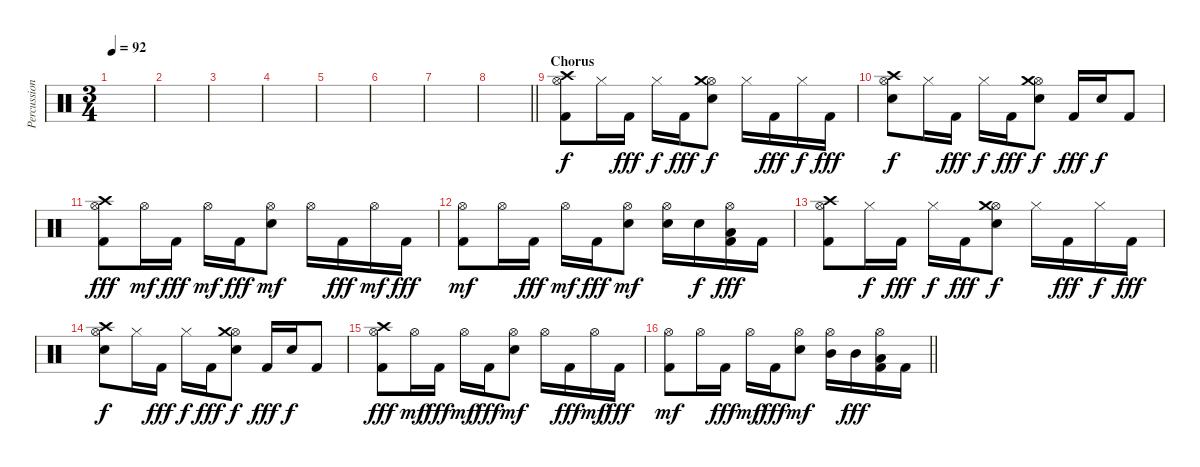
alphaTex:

\track ("Percussion" "Percussion") {instrument percussion}
\staff {score}
\articulation defaults
\ts (3 4)
\tempo 92
\clef neutral
\ks c
|
|
|
|
|
|
|
\barLineRight lightlight
|
\section ("" "Chorus")
("Kick (hit) 2" "Hi-Hat (open)" "Crash high (hit)").8 "Hi-Hat (closed)".16{dy f} "Kick (hit) 2".16{dy fff} "Hi-Hat (closed)".16{dy f} "Kick (hit) 2".16{dy fff} ("Electric Snare (hit)" "Hi-Hat (open)" "Crash medium (hit)").8{dy f} "Hi-Hat (closed)".16 "Kick (hit) 2".16{dy fff} "Hi-Hat (closed)".16{dy f} "Kick (hit) 2".16{dy fff} |
("Electric Snare (hit)" "Hi-Hat (open)" "Crash high (hit)").8{dy f} "Hi-Hat (closed)".16 "Kick (hit) 2".16{dy fff} "Hi-Hat (closed)".16{dy f} "Kick (hit) 2".16{dy fff} ("Electric Snare (hit)" "Hi-Hat (open)" "Crash medium (hit)").8{dy f} "Kick (hit) 2".16{dy fff} "Electric Snare (hit)".16{dy f} "Kick (hit) 2".8 |
("Kick (hit) 2" "Hi-Hat (open)" "Crash high (hit)").8{dy fff} "Hi-Hat (open)".16{dy mf} "Kick (hit) 2".16{dy fff} "Hi-Hat (open)".16{dy mf} "Kick (hit) 2".16{dy fff} ("Electric Snare (hit)" "Hi-Hat (open)").8{dy mf} "Hi-Hat (open)".16 "Kick (hit) 2".16{dy fff} "Hi-Hat (open)".16{dy mf} "Kick (hit) 2".16{dy fff} |
("Kick (hit) 2" "Hi-Hat (open)").8{dy mf} "Hi-Hat (open)".16 "Kick (hit) 2".16{dy fff} "Hi-Hat (open)".16{dy mf} "Kick (hit) 2".16{dy fff} ("Electric Snare (hit)" "Hi-Hat (open)").8{dy mf} ("Electric Snare (hit)" "Hi-Hat (open)").16 "Electric Snare (hit)".16{dy f} ("Kick (hit) 2" "Hi-Hat (open)" "Low Tom (hit)").16{dy fff} "Kick (hit) 2".16 |
("Kick (hit) 2" "Hi-Hat (open)" "Crash high (hit)").8 "Hi-Hat (closed)".16{dy f} "Kick (hit) 2".16{dy fff} "Hi-Hat (closed)".16{dy f} "Kick (hit) 2".16{dy fff} ("Electric Snare (hit)" "Hi-Hat (open)" "Crash medium (hit)").8{dy f} "Hi-Hat (closed)".16 "Kick (hit) 2".16{dy fff} "Hi-Hat (closed)".16{dy f} "Kick (hit) 2".16{dy fff} |
("Electric Snare (hit)" "Hi-Hat (open)" "Crash high (hit)").8{dy f} "Hi-Hat (closed)".16 "Kick (hit) 2".16{dy fff} "Hi-Hat (closed)".16{dy f} "Kick (hit) 2".16{dy fff} ("Electric Snare (hit)" "Hi-Hat (open)" "Crash medium (hit)").8{dy f} "Kick (hit) 2".16{dy fff} "Electric Snare (hit)".16{dy f} "Kick (hit) 2".8 |
("Kick (hit) 2" "Hi-Hat (open)" "Crash high (hit)").8{dy fff} "Hi-Hat (open)".16{dy mf} "Kick (hit) 2".16{dy fff} "Hi-Hat (open)".16{dy mf} "Kick (hit) 2".16{dy fff} ("Electric Snare (hit)" "Hi-Hat (open)").8{dy mf} "Hi-Hat (open)".16 "Kick (hit) 2".16{dy fff} "Hi-Hat (open)".16{dy mf} "Kick (hit) 2".16{dy fff} |
\barLineRight lightlight
("Kick (hit) 2" "Hi-Hat (open)").8{dy mf} "Hi-Hat (open)".16 "Kick (hit) 2".16{dy fff} "Hi-Hat (open)".16{dy mf} "Kick (hit) 2".16{dy fff} ("Electric Snare (hit)" "Hi-Hat (open)").8{dy mf} ("Mid Tom (hit)" "Hi-Hat (open)").16 "Mid Tom (hit)".16{dy fff} ("Kick (hit) 2" "Hi-Hat (open)" "Low Tom (hit)").16 "Kick (hit) 2".16
